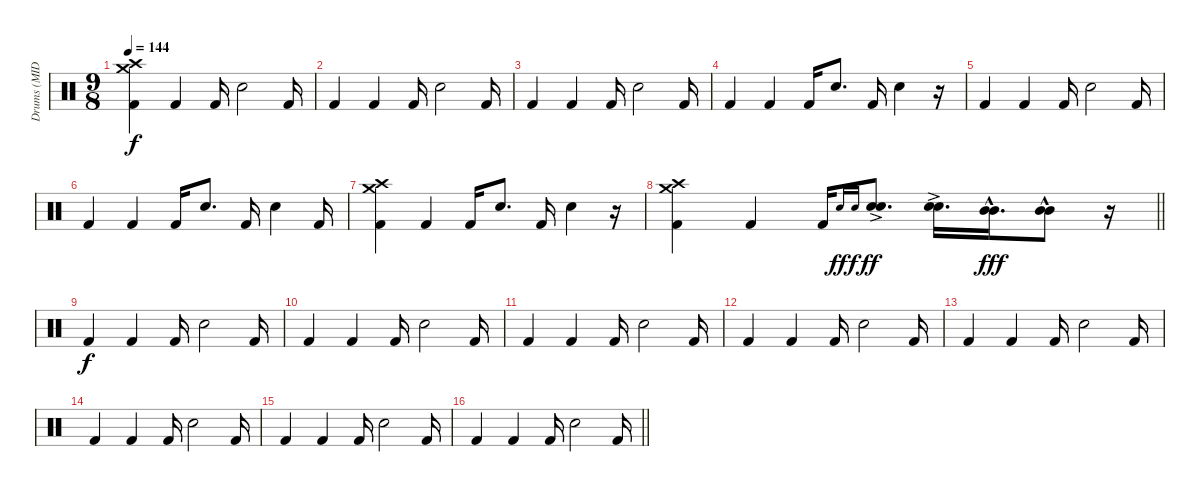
\track ("Drums (MIDI!)" "Drums (MID") {instrument percussion}
\staff {score}
\articulation defaults
\ts (9 8)
\tempo 144
\clef neutral
\ks c
("Crash medium (hit)" "Crash high (hit)" "Kick (hit) 2").4{dy f} "Kick (hit) 2".4 "Kick (hit) 2".16 "Electric Snare (hit)".2 "Kick (hit) 2".16 |
"Kick (hit) 2".4 "Kick (hit) 2".4 "Kick (hit) 2".16 "Electric Snare (hit)".2 "Kick (hit) 2".16 |
"Kick (hit) 2".4 "Kick (hit) 2".4 "Kick (hit) 2".16 "Electric Snare (hit)".2 "Kick (hit) 2".16 |
"Kick (hit) 2".4 "Kick (hit) 2".4 "Kick (hit) 2".16 "Electric Snare (hit)".8{d} "Kick (hit) 2".16 "Electric Snare (hit)".4 r.16 |
"Kick (hit) 2".4 "Kick (hit) 2".4 "Kick (hit) 2".16 "Electric Snare (hit)".2 "Kick (hit) 2".16 |
"Kick (hit) 2".4 "Kick (hit) 2".4 "Kick (hit) 2".16 "Electric Snare (hit)".8{d} "Kick (hit) 2".16 "Electric Snare (hit)".4 "Kick (hit) 2".16 |
("Crash medium (hit)" "Crash high (hit)" "Kick (hit) 2").4 "Kick (hit) 2".4 "Kick (hit) 2".16 "Electric Snare (hit)".8{d} "Kick (hit) 2".16 "Electric Snare (hit)".4 r.16 |
\barLineRight lightlight
("Crash medium (hit)" "Crash high (hit)" "Kick (hit) 2").4 "Kick (hit) 2".4 "Kick (hit) 2".16 "Electric Snare (hit)".16{gr onbeat dy ff} "Electric Snare (hit)".16{gr onbeat dy f} ("Electric Snare (hit)"{ac} "Electric Snare (hit)").8{d dy ff} ("Electric Snare (hit)"{ac} "Electric Snare (hit)").16{d} ("Mid Tom (hit)"{hac} "Mid Tom (hit)").16{d dy fff} ("Mid Tom (hit)"{hac} "Mid Tom (hit)").8 r.16 |
"Kick (hit) 2".4{dy f} "Kick (hit) 2".4 "Kick (hit) 2".16 "Electric Snare (hit)".2 "Kick (hit) 2".16 |
"Kick (hit) 2".4 "Kick (hit) 2".4 "Kick (hit) 2".16 "Electric Snare (hit)".2 "Kick (hit) 2".16 |
"Kick (hit) 2".4 "Kick (hit) 2".4 "Kick (hit) 2".16 "Electric Snare (hit)".2 "Kick (hit) 2".16 |
"Kick (hit) 2".4 "Kick (hit) 2".4 "Kick (hit) 2".16 "Electric Snare (hit)".2 "Kick (hit) 2".16 |
"Kick (hit) 2".4 "Kick (hit) 2".4 "Kick (hit) 2".16 "Electric Snare (hit)".2 "Kick (hit) 2".16 |
"Kick (hit) 2".4 "Kick (hit) 2".4 "Kick (hit) 2".16 "Electric Snare (hit)".2 "Kick (hit) 2".16 |
"Kick (hit) 2".4 "Kick (hit) 2".4 "Kick (hit) 2".16 "Electric Snare (hit)".2 "Kick (hit) 2".16 |
\barLineRight lightlight "Kick (hit) 2".4 "Kick (hit) 2".4 "Kick (hit) 2".16 "Electric Snare (hit)".2 "Kick (hit) 2".16
